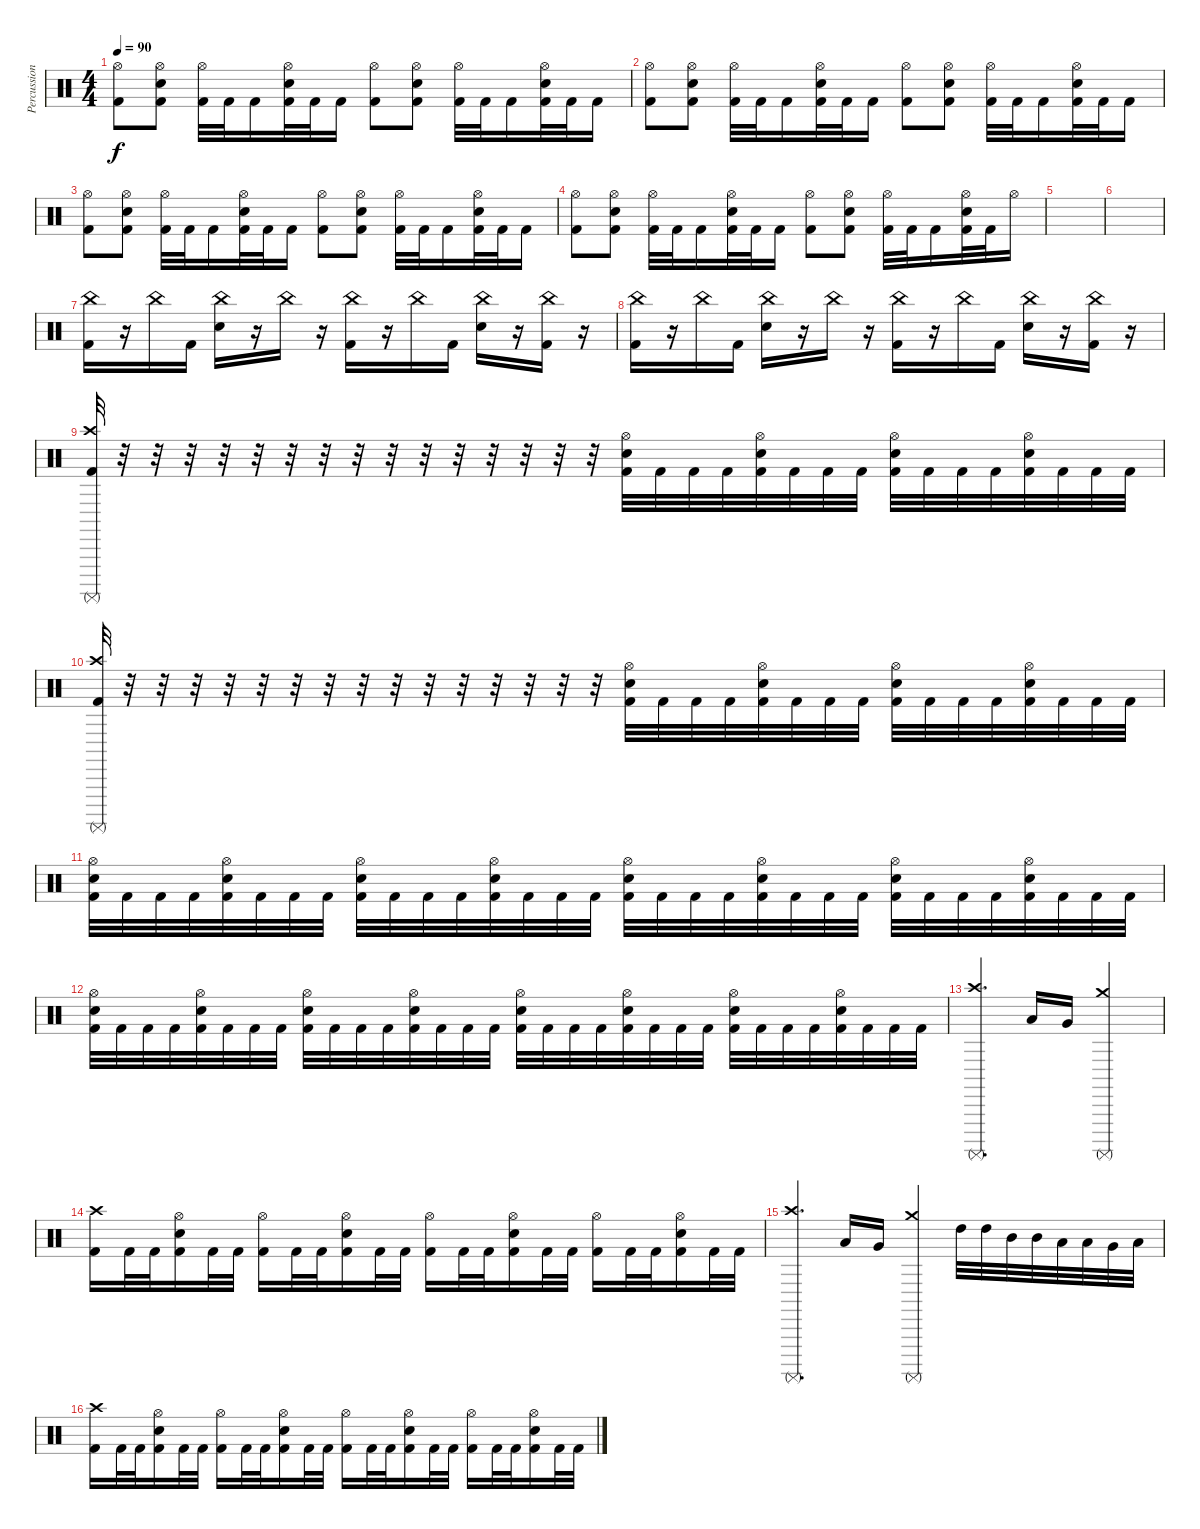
\track ("Percussion" "Percussion") {instrument percussion}
\staff {score}
\articulation defaults
\ts (4 4)
\tempo 90
\clef neutral
\ks c
("Hi-Hat (open)" "Kick (hit) 2").8{dy f} ("Hi-Hat (open)" "Kick (hit) 2" "Electric Snare (hit)").8 ("Kick (hit) 2" "Hi-Hat (open)").32 "Kick (hit) 2".32 "Kick (hit) 2".16 ("Kick (hit) 2" "Hi-Hat (open)" "Electric Snare (hit)").32 "Kick (hit) 2".32 "Kick (hit) 2".16 ("Hi-Hat (open)" "Kick (hit) 2").8 ("Hi-Hat (open)" "Kick (hit) 2" "Electric Snare (hit)").8 ("Kick (hit) 2" "Hi-Hat (open)").32 "Kick (hit) 2".32 "Kick (hit) 2".16 ("Kick (hit) 2" "Hi-Hat (open)" "Electric Snare (hit)").32 "Kick (hit) 2".32 "Kick (hit) 2".16 |
("Hi-Hat (open)" "Kick (hit) 2").8 ("Hi-Hat (open)" "Kick (hit) 2" "Electric Snare (hit)").8 ("Kick (hit) 2" "Hi-Hat (open)").32 "Kick (hit) 2".32 "Kick (hit) 2".16 ("Kick (hit) 2" "Hi-Hat (open)" "Electric Snare (hit)").32 "Kick (hit) 2".32 "Kick (hit) 2".16 ("Hi-Hat (open)" "Kick (hit) 2").8 ("Hi-Hat (open)" "Kick (hit) 2" "Electric Snare (hit)").8 ("Kick (hit) 2" "Hi-Hat (open)").32 "Kick (hit) 2".32 "Kick (hit) 2".16 ("Kick (hit) 2" "Hi-Hat (open)" "Electric Snare (hit)").32 "Kick (hit) 2".32 "Kick (hit) 2".16 |
("Hi-Hat (open)" "Kick (hit) 2").8 ("Hi-Hat (open)" "Kick (hit) 2" "Electric Snare (hit)").8 ("Kick (hit) 2" "Hi-Hat (open)").32 "Kick (hit) 2".32 "Kick (hit) 2".16 ("Kick (hit) 2" "Hi-Hat (open)" "Electric Snare (hit)").32 "Kick (hit) 2".32 "Kick (hit) 2".16 ("Hi-Hat (open)" "Kick (hit) 2").8 ("Hi-Hat (open)" "Kick (hit) 2" "Electric Snare (hit)").8 ("Kick (hit) 2" "Hi-Hat (open)").32 "Kick (hit) 2".32 "Kick (hit) 2".16 ("Kick (hit) 2" "Hi-Hat (open)" "Electric Snare (hit)").32 "Kick (hit) 2".32 "Kick (hit) 2".16 |
("Hi-Hat (open)" "Kick (hit) 2").8 ("Hi-Hat (open)" "Kick (hit) 2" "Electric Snare (hit)").8 ("Kick (hit) 2" "Hi-Hat (open)").32 "Kick (hit) 2".32 "Kick (hit) 2".16 ("Kick (hit) 2" "Hi-Hat (open)" "Electric Snare (hit)").32 "Kick (hit) 2".32 "Kick (hit) 2".16 ("Hi-Hat (open)" "Kick (hit) 2").8 ("Hi-Hat (open)" "Kick (hit) 2" "Electric Snare (hit)").8 ("Kick (hit) 2" "Hi-Hat (open)").32 "Kick (hit) 2".32 "Kick (hit) 2".16 ("Kick (hit) 2" "Hi-Hat (open)" "Electric Snare (hit)").32 "Kick (hit) 2".32 "Hi-Hat (open)".16 |
|
|
("Kick (hit) 2" "China (hit)").16 r.16 "China (hit)".16 "Kick (hit) 2".16 ("Electric Snare (hit)" "China (hit)").16 r.16 "China (hit)".16 r.16 ("Kick (hit) 2" "China (hit)").16 r.16 "China (hit)".16 "Kick (hit) 2".16 ("Electric Snare (hit)" "China (hit)").16 r.16 ("Kick (hit) 2" "China (hit)").16 r.16 |
("Kick (hit) 2" "China (hit)").16 r.16 "China (hit)".16 "Kick (hit) 2".16 ("Electric Snare (hit)" "China (hit)").16 r.16 "China (hit)".16 r.16 ("Kick (hit) 2" "China (hit)").16 r.16 "China (hit)".16 "Kick (hit) 2".16 ("Electric Snare (hit)" "China (hit)").16 r.16 ("Kick (hit) 2" "China (hit)").16 r.16 |
("Kick (hit) 2" "Crash high (hit)" "Surdo (mute)").32 r.32 r.32 r.32 r.32 r.32 r.32 r.32 r.32 r.32 r.32 r.32 r.32 r.32 r.32 r.32 ("Kick (hit) 2" "Hi-Hat (open)" "Electric Snare (hit)").32 "Kick (hit) 2".32 "Kick (hit) 2".32 "Kick (hit) 2".32 ("Kick (hit) 2" "Hi-Hat (open)" "Electric Snare (hit)").32 "Kick (hit) 2".32 "Kick (hit) 2".32 "Kick (hit) 2".32 ("Kick (hit) 2" "Hi-Hat (open)" "Electric Snare (hit)").32 "Kick (hit) 2".32 "Kick (hit) 2".32 "Kick (hit) 2".32 ("Kick (hit) 2" "Hi-Hat (open)" "Electric Snare (hit)").32 "Kick (hit) 2".32 "Kick (hit) 2".32 "Kick (hit) 2".32 |
("Kick (hit) 2" "Crash high (hit)" "Surdo (mute)").32 r.32 r.32 r.32 r.32 r.32 r.32 r.32 r.32 r.32 r.32 r.32 r.32 r.32 r.32 r.32 ("Kick (hit) 2" "Hi-Hat (open)" "Electric Snare (hit)").32 "Kick (hit) 2".32 "Kick (hit) 2".32 "Kick (hit) 2".32 ("Kick (hit) 2" "Hi-Hat (open)" "Electric Snare (hit)").32 "Kick (hit) 2".32 "Kick (hit) 2".32 "Kick (hit) 2".32 ("Kick (hit) 2" "Hi-Hat (open)" "Electric Snare (hit)").32 "Kick (hit) 2".32 "Kick (hit) 2".32 "Kick (hit) 2".32 ("Kick (hit) 2" "Hi-Hat (open)" "Electric Snare (hit)").32 "Kick (hit) 2".32 "Kick (hit) 2".32 "Kick (hit) 2".32 |
("Kick (hit) 2" "Hi-Hat (open)" "Electric Snare (hit)").32 "Kick (hit) 2".32 "Kick (hit) 2".32 "Kick (hit) 2".32 ("Kick (hit) 2" "Hi-Hat (open)" "Electric Snare (hit)").32 "Kick (hit) 2".32 "Kick (hit) 2".32 "Kick (hit) 2".32 ("Kick (hit) 2" "Hi-Hat (open)" "Electric Snare (hit)").32 "Kick (hit) 2".32 "Kick (hit) 2".32 "Kick (hit) 2".32 ("Kick (hit) 2" "Hi-Hat (open)" "Electric Snare (hit)").32 "Kick (hit) 2".32 "Kick (hit) 2".32 "Kick (hit) 2".32 ("Kick (hit) 2" "Hi-Hat (open)" "Electric Snare (hit)").32 "Kick (hit) 2".32 "Kick (hit) 2".32 "Kick (hit) 2".32 ("Kick (hit) 2" "Hi-Hat (open)" "Electric Snare (hit)").32 "Kick (hit) 2".32 "Kick (hit) 2".32 "Kick (hit) 2".32 ("Kick (hit) 2" "Hi-Hat (open)" "Electric Snare (hit)").32 "Kick (hit) 2".32 "Kick (hit) 2".32 "Kick (hit) 2".32 ("Kick (hit) 2" "Hi-Hat (open)" "Electric Snare (hit)").32 "Kick (hit) 2".32 "Kick (hit) 2".32 "Kick (hit) 2".32 |
("Kick (hit) 2" "Hi-Hat (open)" "Electric Snare (hit)").32 "Kick (hit) 2".32 "Kick (hit) 2".32 "Kick (hit) 2".32 ("Kick (hit) 2" "Hi-Hat (open)" "Electric Snare (hit)").32 "Kick (hit) 2".32 "Kick (hit) 2".32 "Kick (hit) 2".32 ("Kick (hit) 2" "Hi-Hat (open)" "Electric Snare (hit)").32 "Kick (hit) 2".32 "Kick (hit) 2".32 "Kick (hit) 2".32 ("Kick (hit) 2" "Hi-Hat (open)" "Electric Snare (hit)").32 "Kick (hit) 2".32 "Kick (hit) 2".32 "Kick (hit) 2".32 ("Kick (hit) 2" "Hi-Hat (open)" "Electric Snare (hit)").32 "Kick (hit) 2".32 "Kick (hit) 2".32 "Kick (hit) 2".32 ("Kick (hit) 2" "Hi-Hat (open)" "Electric Snare (hit)").32 "Kick (hit) 2".32 "Kick (hit) 2".32 "Kick (hit) 2".32 ("Kick (hit) 2" "Hi-Hat (open)" "Electric Snare (hit)").32 "Kick (hit) 2".32 "Kick (hit) 2".32 "Kick (hit) 2".32 ("Kick (hit) 2" "Hi-Hat (open)" "Electric Snare (hit)").32 "Kick (hit) 2".32 "Kick (hit) 2".32 "Kick (hit) 2".32 |
("Surdo (mute)" "Crash high (hit)").4{d} "Low Tom (hit)".16 "Very Low Tom (hit)".16 ("Surdo (mute)" "Crash medium (hit)").2 |
("Kick (hit) 2" "Crash high (hit)").16 "Kick (hit) 2".32 "Kick (hit) 2".32 ("Kick (hit) 2" "Electric Snare (hit)" "Hi-Hat (open)").16 "Kick (hit) 2".32 "Kick (hit) 2".32 ("Kick (hit) 2" "Hi-Hat (open)").16 "Kick (hit) 2".32 "Kick (hit) 2".32 ("Kick (hit) 2" "Electric Snare (hit)" "Hi-Hat (open)").16 "Kick (hit) 2".32 "Kick (hit) 2".32 ("Kick (hit) 2" "Hi-Hat (open)").16 "Kick (hit) 2".32 "Kick (hit) 2".32 ("Kick (hit) 2" "Electric Snare (hit)" "Hi-Hat (open)").16 "Kick (hit) 2".32 "Kick (hit) 2".32 ("Kick (hit) 2" "Hi-Hat (open)").16 "Kick (hit) 2".32 "Kick (hit) 2".32 ("Kick (hit) 2" "Electric Snare (hit)" "Hi-Hat (open)").16 "Kick (hit) 2".32 "Kick (hit) 2".32 |
("Surdo (mute)" "Crash high (hit)").4{d} "Low Tom (hit)".16 "Very Low Tom (hit)".16 ("Surdo (mute)" "Crash medium (hit)").4 "High Tom (hit)".32 "High Tom (hit)".32 "Mid Tom (hit)".32 "Mid Tom (hit)".32 "Low Tom (hit)".32 "Low Tom (hit)".32 "Very Low Tom (hit)".32 "Low Floor Tom (hit)".32 |
("Kick (hit) 2" "Crash high (hit)").16 "Kick (hit) 2".32 "Kick (hit) 2".32 ("Kick (hit) 2" "Electric Snare (hit)" "Hi-Hat (open)").16 "Kick (hit) 2".32 "Kick (hit) 2".32 ("Kick (hit) 2" "Hi-Hat (open)").16 "Kick (hit) 2".32 "Kick (hit) 2".32 ("Kick (hit) 2" "Electric Snare (hit)" "Hi-Hat (open)").16 "Kick (hit) 2".32 "Kick (hit) 2".32 ("Kick (hit) 2" "Hi-Hat (open)").16 "Kick (hit) 2".32 "Kick (hit) 2".32 ("Kick (hit) 2" "Electric Snare (hit)" "Hi-Hat (open)").16 "Kick (hit) 2".32 "Kick (hit) 2".32 ("Kick (hit) 2" "Hi-Hat (open)").16 "Kick (hit) 2".32 "Kick (hit) 2".32 ("Kick (hit) 2" "Electric Snare (hit)" "Hi-Hat (open)").16 "Kick (hit) 2".32 "Kick (hit) 2".32
